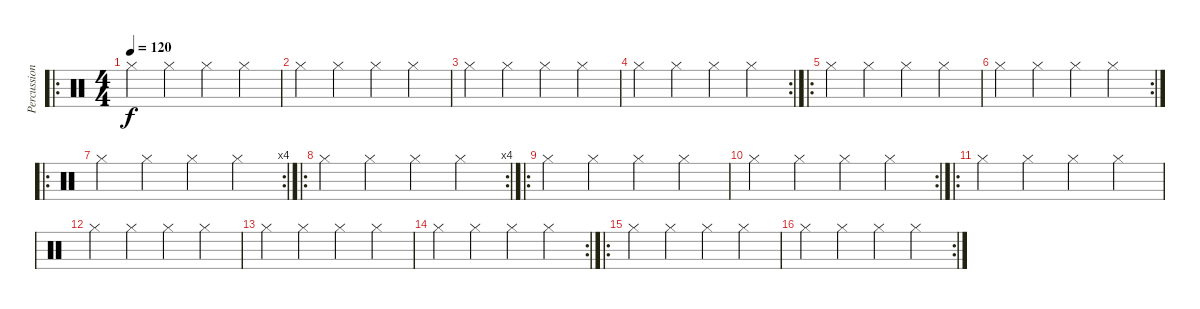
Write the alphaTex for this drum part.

\track ("Percussioni" "Percussion") {instrument percussion}
\staff {score}
\articulation defaults
\ro
\ts (4 4)
\tempo 120
\clef neutral
\ks c "Hi-Hat (closed)".4{dy f} "Hi-Hat (closed)".4 "Hi-Hat (closed)".4 "Hi-Hat (closed)".4
|
"Hi-Hat (closed)".4 "Hi-Hat (closed)".4 "Hi-Hat (closed)".4 "Hi-Hat (closed)".4 |
"Hi-Hat (closed)".4 "Hi-Hat (closed)".4 "Hi-Hat (closed)".4 "Hi-Hat (closed)".4 |
\rc 2 "Hi-Hat (closed)".4 "Hi-Hat (closed)".4 "Hi-Hat (closed)".4 "Hi-Hat (closed)".4
|
\ro "Hi-Hat (closed)".4 "Hi-Hat (closed)".4 "Hi-Hat (closed)".4 "Hi-Hat (closed)".4
|
\rc 2 "Hi-Hat (closed)".4 "Hi-Hat (closed)".4 "Hi-Hat (closed)".4 "Hi-Hat (closed)".4
|
\ro
\rc 4 "Hi-Hat (closed)".4 "Hi-Hat (closed)".4 "Hi-Hat (closed)".4 "Hi-Hat (closed)".4
|
\ro
\rc 4 "Hi-Hat (closed)".4 "Hi-Hat (closed)".4 "Hi-Hat (closed)".4 "Hi-Hat (closed)".4
|
\ro "Hi-Hat (closed)".4 "Hi-Hat (closed)".4 "Hi-Hat (closed)".4 "Hi-Hat (closed)".4
|
\rc 2 "Hi-Hat (closed)".4 "Hi-Hat (closed)".4 "Hi-Hat (closed)".4 "Hi-Hat (closed)".4
|
\ro "Hi-Hat (closed)".4 "Hi-Hat (closed)".4 "Hi-Hat (closed)".4 "Hi-Hat (closed)".4
|
"Hi-Hat (closed)".4 "Hi-Hat (closed)".4 "Hi-Hat (closed)".4 "Hi-Hat (closed)".4 |
"Hi-Hat (closed)".4 "Hi-Hat (closed)".4 "Hi-Hat (closed)".4 "Hi-Hat (closed)".4 |
\rc 2 "Hi-Hat (closed)".4 "Hi-Hat (closed)".4 "Hi-Hat (closed)".4 "Hi-Hat (closed)".4
|
\ro "Hi-Hat (closed)".4 "Hi-Hat (closed)".4 "Hi-Hat (closed)".4 "Hi-Hat (closed)".4
|
\rc 2 "Hi-Hat (closed)".4 "Hi-Hat (closed)".4 "Hi-Hat (closed)".4 "Hi-Hat (closed)".4
